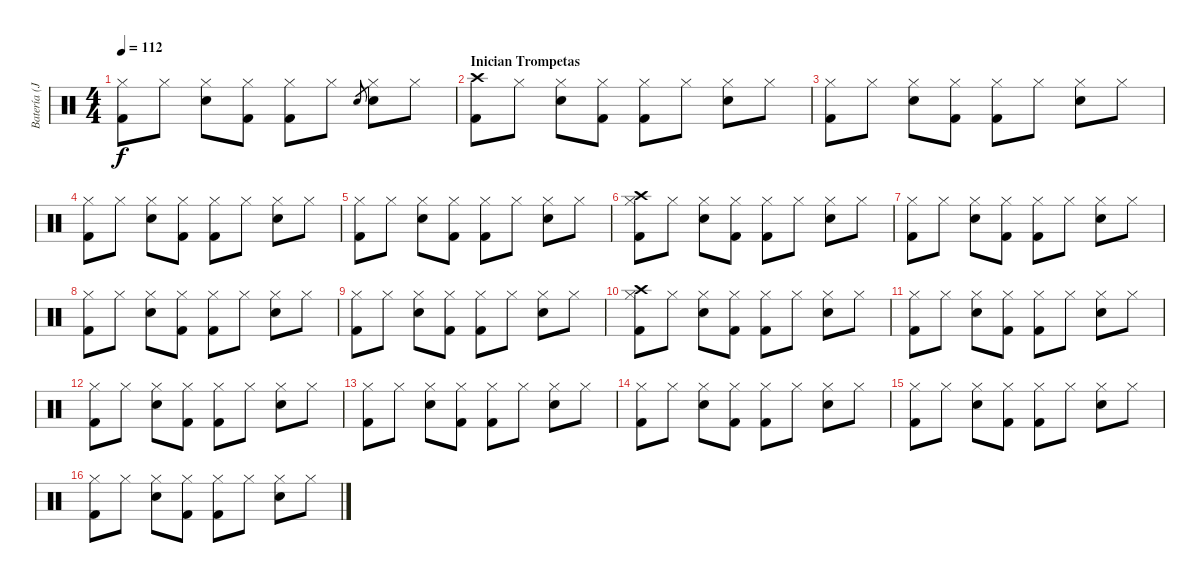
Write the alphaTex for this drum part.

\track ("Batería (Javi Molina)" "Batería (J") {instrument percussion}
\staff {score}
\articulation defaults
\ts (4 4)
\tempo 112
\clef neutral
\ks c
("Hi-Hat (closed)" "Kick (hit) 2").8{dy f} "Hi-Hat (closed)".8 ("Hi-Hat (closed)" "Electric Snare (hit)").8 ("Hi-Hat (closed)" "Kick (hit) 2").8 ("Hi-Hat (closed)" "Kick (hit) 2").8 "Hi-Hat (closed)".8 "Electric Snare (hit)".8{gr} ("Hi-Hat (closed)" "Electric Snare (hit)").8 "Hi-Hat (closed)".8 |
\section ("" "Inician Trompetas")
("Kick (hit) 2" "Crash high (hit)").8 "Hi-Hat (closed)".8 ("Hi-Hat (closed)" "Electric Snare (hit)").8 ("Hi-Hat (closed)" "Kick (hit) 2").8 ("Hi-Hat (closed)" "Kick (hit) 2").8 "Hi-Hat (closed)".8 ("Hi-Hat (closed)" "Electric Snare (hit)").8 "Hi-Hat (closed)".8 |
("Hi-Hat (closed)" "Kick (hit) 2").8 "Hi-Hat (closed)".8 ("Hi-Hat (closed)" "Electric Snare (hit)").8 ("Hi-Hat (closed)" "Kick (hit) 2").8 ("Hi-Hat (closed)" "Kick (hit) 2").8 "Hi-Hat (closed)".8 ("Hi-Hat (closed)" "Electric Snare (hit)").8 "Hi-Hat (closed)".8 |
("Hi-Hat (closed)" "Kick (hit) 2").8 "Hi-Hat (closed)".8 ("Hi-Hat (closed)" "Electric Snare (hit)").8 ("Hi-Hat (closed)" "Kick (hit) 2").8 ("Hi-Hat (closed)" "Kick (hit) 2").8 "Hi-Hat (closed)".8 ("Hi-Hat (closed)" "Electric Snare (hit)").8 "Hi-Hat (closed)".8 |
("Hi-Hat (closed)" "Kick (hit) 2").8 "Hi-Hat (closed)".8 ("Hi-Hat (closed)" "Electric Snare (hit)").8 ("Hi-Hat (closed)" "Kick (hit) 2").8 ("Hi-Hat (closed)" "Kick (hit) 2").8 "Hi-Hat (closed)".8 ("Hi-Hat (closed)" "Electric Snare (hit)").8 "Hi-Hat (closed)".8 |
("Hi-Hat (closed)" "Kick (hit) 2" "Crash high (hit)").8 "Hi-Hat (closed)".8 ("Hi-Hat (closed)" "Electric Snare (hit)").8 ("Hi-Hat (closed)" "Kick (hit) 2").8 ("Hi-Hat (closed)" "Kick (hit) 2").8 "Hi-Hat (closed)".8 ("Hi-Hat (closed)" "Electric Snare (hit)").8 "Hi-Hat (closed)".8 |
("Hi-Hat (closed)" "Kick (hit) 2").8 "Hi-Hat (closed)".8 ("Hi-Hat (closed)" "Electric Snare (hit)").8 ("Hi-Hat (closed)" "Kick (hit) 2").8 ("Hi-Hat (closed)" "Kick (hit) 2").8 "Hi-Hat (closed)".8 ("Hi-Hat (closed)" "Electric Snare (hit)").8 "Hi-Hat (closed)".8 |
("Hi-Hat (closed)" "Kick (hit) 2").8 "Hi-Hat (closed)".8 ("Hi-Hat (closed)" "Electric Snare (hit)").8 ("Hi-Hat (closed)" "Kick (hit) 2").8 ("Hi-Hat (closed)" "Kick (hit) 2").8 "Hi-Hat (closed)".8 ("Hi-Hat (closed)" "Electric Snare (hit)").8 "Hi-Hat (closed)".8 |
("Hi-Hat (closed)" "Kick (hit) 2").8 "Hi-Hat (closed)".8 ("Hi-Hat (closed)" "Electric Snare (hit)").8 ("Hi-Hat (closed)" "Kick (hit) 2").8 ("Hi-Hat (closed)" "Kick (hit) 2").8 "Hi-Hat (closed)".8 ("Hi-Hat (closed)" "Electric Snare (hit)").8 "Hi-Hat (closed)".8 |
("Hi-Hat (closed)" "Kick (hit) 2" "Crash high (hit)").8 "Hi-Hat (closed)".8 ("Hi-Hat (closed)" "Electric Snare (hit)").8 ("Hi-Hat (closed)" "Kick (hit) 2").8 ("Hi-Hat (closed)" "Kick (hit) 2").8 "Hi-Hat (closed)".8 ("Hi-Hat (closed)" "Electric Snare (hit)").8 "Hi-Hat (closed)".8 |
("Hi-Hat (closed)" "Kick (hit) 2").8 "Hi-Hat (closed)".8 ("Hi-Hat (closed)" "Electric Snare (hit)").8 ("Hi-Hat (closed)" "Kick (hit) 2").8 ("Hi-Hat (closed)" "Kick (hit) 2").8 "Hi-Hat (closed)".8 ("Hi-Hat (closed)" "Electric Snare (hit)").8 "Hi-Hat (closed)".8 |
("Hi-Hat (closed)" "Kick (hit) 2").8 "Hi-Hat (closed)".8 ("Hi-Hat (closed)" "Electric Snare (hit)").8 ("Hi-Hat (closed)" "Kick (hit) 2").8 ("Hi-Hat (closed)" "Kick (hit) 2").8 "Hi-Hat (closed)".8 ("Hi-Hat (closed)" "Electric Snare (hit)").8 "Hi-Hat (closed)".8 |
("Hi-Hat (closed)" "Kick (hit) 2").8 "Hi-Hat (closed)".8 ("Hi-Hat (closed)" "Electric Snare (hit)").8 ("Hi-Hat (closed)" "Kick (hit) 2").8 ("Hi-Hat (closed)" "Kick (hit) 2").8 "Hi-Hat (closed)".8 ("Hi-Hat (closed)" "Electric Snare (hit)").8 "Hi-Hat (closed)".8 |
("Hi-Hat (closed)" "Kick (hit) 2").8 "Hi-Hat (closed)".8 ("Hi-Hat (closed)" "Electric Snare (hit)").8 ("Hi-Hat (closed)" "Kick (hit) 2").8 ("Hi-Hat (closed)" "Kick (hit) 2").8 "Hi-Hat (closed)".8 ("Hi-Hat (closed)" "Electric Snare (hit)").8 "Hi-Hat (closed)".8 |
("Hi-Hat (closed)" "Kick (hit) 2").8 "Hi-Hat (closed)".8 ("Hi-Hat (closed)" "Electric Snare (hit)").8 ("Hi-Hat (closed)" "Kick (hit) 2").8 ("Hi-Hat (closed)" "Kick (hit) 2").8 "Hi-Hat (closed)".8 ("Hi-Hat (closed)" "Electric Snare (hit)").8 "Hi-Hat (closed)".8 |
("Hi-Hat (closed)" "Kick (hit) 2").8 "Hi-Hat (closed)".8 ("Hi-Hat (closed)" "Electric Snare (hit)").8 ("Hi-Hat (closed)" "Kick (hit) 2").8 ("Hi-Hat (closed)" "Kick (hit) 2").8 "Hi-Hat (closed)".8 ("Hi-Hat (closed)" "Electric Snare (hit)").8 "Hi-Hat (closed)".8
